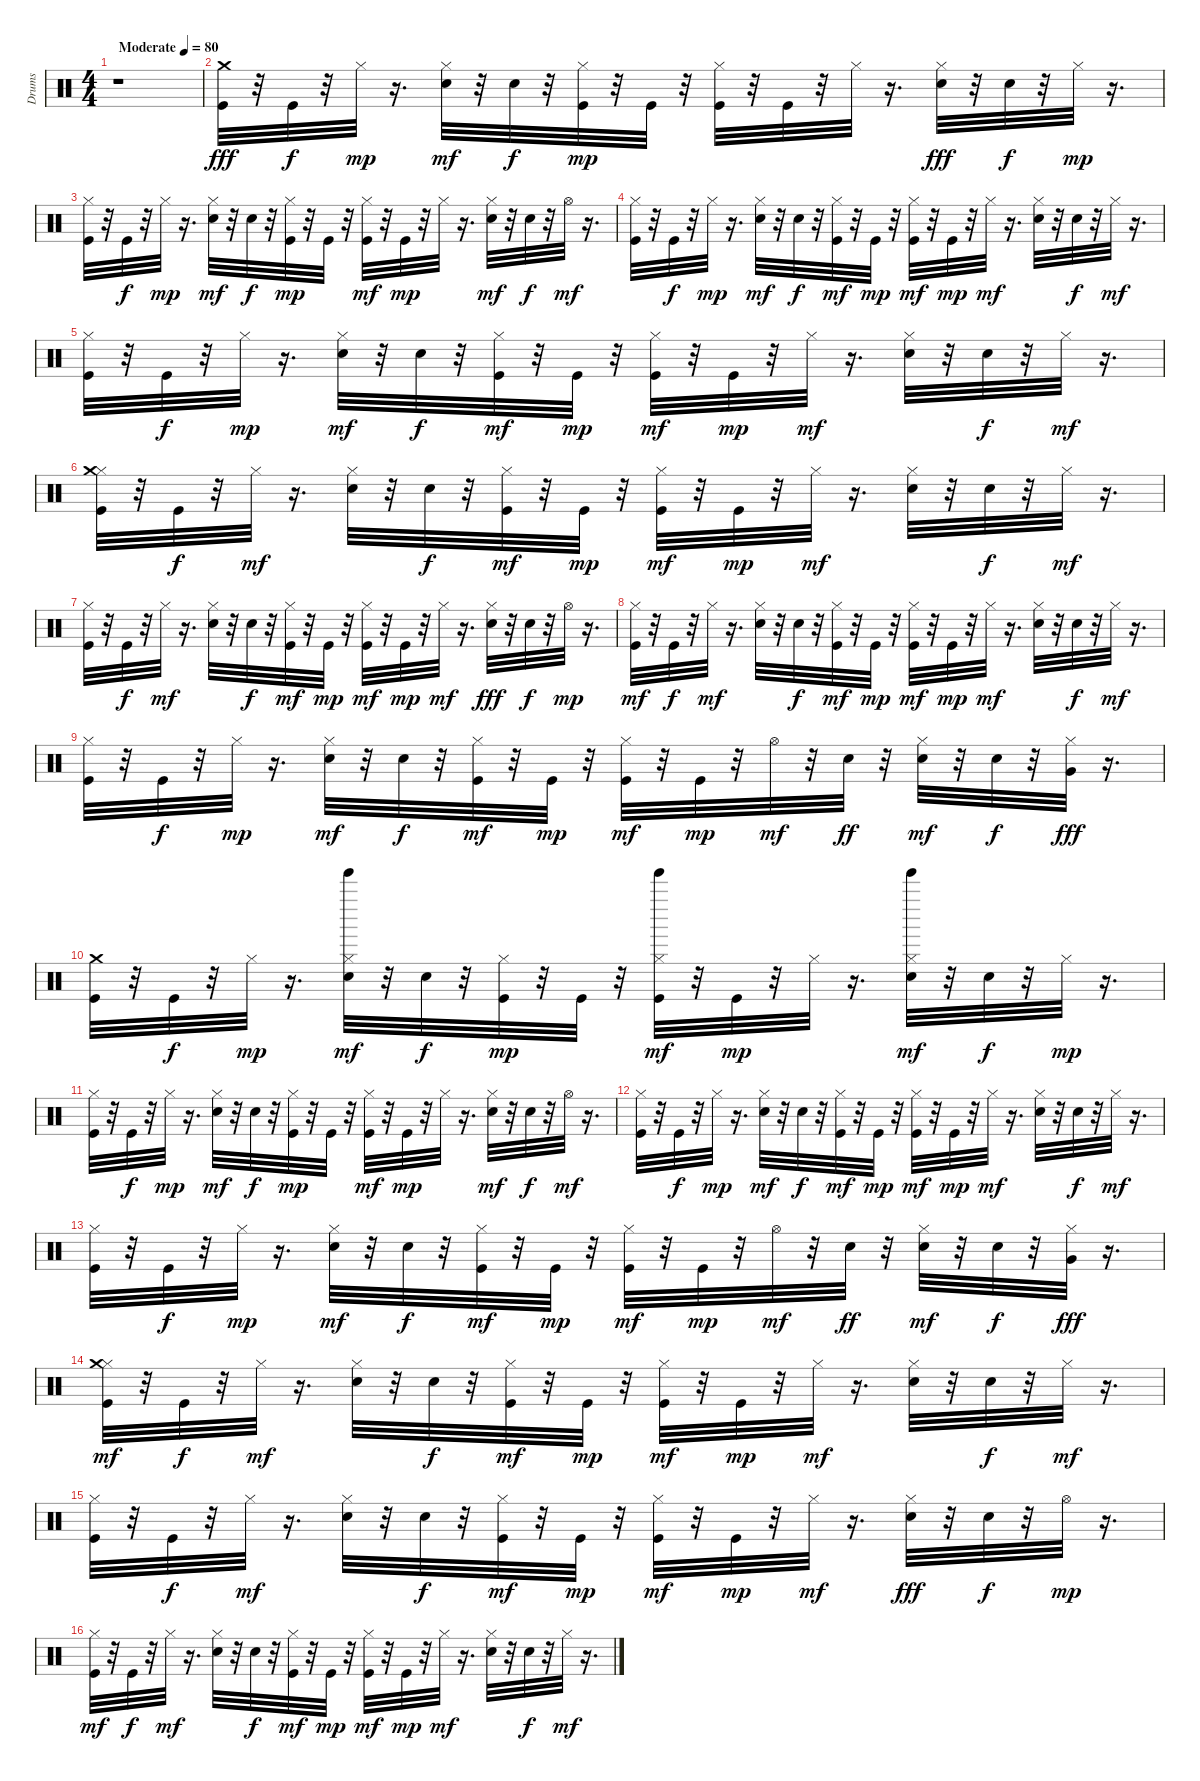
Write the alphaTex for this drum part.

\track ("Drums" "Drums") {instrument percussion}
\staff {score}
\articulation defaults
\ts (4 4)
\tempo (80 "Moderate")
\clef neutral
\ks c
r.1{dy fff} |
("Kick (hit)" "Crash medium (hit)").32 r.32 "Kick (hit)".32{dy f} r.32 "Hi-Hat (closed)".32{dy mp} r.16{d} ("Snare (hit) 2" "Hi-Hat (closed)").32{dy mf} r.32 "Snare (hit) 2".32{dy f} r.32 ("Kick (hit)" "Hi-Hat (closed)").32{dy mp} r.32 "Kick (hit)".32 r.32 ("Kick (hit)" "Hi-Hat (closed)").32 r.32 "Kick (hit)".32 r.32 "Hi-Hat (closed)".32 r.16{d} ("Snare (hit) 2" "Hi-Hat (closed)").32{dy fff} r.32 "Snare (hit) 2".32{dy f} r.32 "Hi-Hat (closed)".32{dy mp} r.16{d} |
("Kick (hit)" "Hi-Hat (closed)").32 r.32 "Kick (hit)".32{dy f} r.32 "Hi-Hat (closed)".32{dy mp} r.16{d} ("Snare (hit) 2" "Hi-Hat (closed)").32{dy mf} r.32 "Snare (hit) 2".32{dy f} r.32 ("Kick (hit)" "Hi-Hat (closed)").32{dy mp} r.32 "Kick (hit)".32 r.32 ("Kick (hit)" "Hi-Hat (closed)").32{dy mf} r.32 "Kick (hit)".32{dy mp} r.32 "Hi-Hat (closed)".32 r.16{d} ("Snare (hit) 2" "Hi-Hat (closed)").32{dy mf} r.32 "Snare (hit) 2".32{dy f} r.32 "Hi-Hat (open)".32{dy mf} r.16{d} |
("Kick (hit)" "Hi-Hat (closed)").32 r.32 "Kick (hit)".32{dy f} r.32 "Hi-Hat (closed)".32{dy mp} r.16{d} ("Snare (hit) 2" "Hi-Hat (closed)").32{dy mf} r.32 "Snare (hit) 2".32{dy f} r.32 ("Kick (hit)" "Hi-Hat (closed)").32{dy mf} r.32 "Kick (hit)".32{dy mp} r.32 ("Kick (hit)" "Hi-Hat (closed)").32{dy mf} r.32 "Kick (hit)".32{dy mp} r.32 "Hi-Hat (closed)".32{dy mf} r.16{d} ("Snare (hit) 2" "Hi-Hat (closed)").32 r.32 "Snare (hit) 2".32{dy f} r.32 "Hi-Hat (closed)".32{dy mf} r.16{d} |
("Kick (hit)" "Hi-Hat (closed)").32 r.32 "Kick (hit)".32{dy f} r.32 "Hi-Hat (closed)".32{dy mp} r.16{d} ("Snare (hit) 2" "Hi-Hat (closed)").32{dy mf} r.32 "Snare (hit) 2".32{dy f} r.32 ("Kick (hit)" "Hi-Hat (closed)").32{dy mf} r.32 "Kick (hit)".32{dy mp} r.32 ("Kick (hit)" "Hi-Hat (closed)").32{dy mf} r.32 "Kick (hit)".32{dy mp} r.32 "Hi-Hat (closed)".32{dy mf} r.16{d} ("Snare (hit) 2" "Hi-Hat (closed)").32 r.32 "Snare (hit) 2".32{dy f} r.32 "Hi-Hat (closed)".32{dy mf} r.16{d} |
("Kick (hit)" "Hi-Hat (closed)" "Crash medium (hit)").32 r.32 "Kick (hit)".32{dy f} r.32 "Hi-Hat (closed)".32{dy mf} r.16{d} ("Snare (hit) 2" "Hi-Hat (closed)").32 r.32 "Snare (hit) 2".32{dy f} r.32 ("Kick (hit)" "Hi-Hat (closed)").32{dy mf} r.32 "Kick (hit)".32{dy mp} r.32 ("Kick (hit)" "Hi-Hat (closed)").32{dy mf} r.32 "Kick (hit)".32{dy mp} r.32 "Hi-Hat (closed)".32{dy mf} r.16{d} ("Snare (hit) 2" "Hi-Hat (closed)").32 r.32 "Snare (hit) 2".32{dy f} r.32 "Hi-Hat (closed)".32{dy mf} r.16{d} |
("Kick (hit)" "Hi-Hat (closed)").32 r.32 "Kick (hit)".32{dy f} r.32 "Hi-Hat (closed)".32{dy mf} r.16{d} ("Snare (hit) 2" "Hi-Hat (closed)").32 r.32 "Snare (hit) 2".32{dy f} r.32 ("Kick (hit)" "Hi-Hat (closed)").32{dy mf} r.32 "Kick (hit)".32{dy mp} r.32 ("Kick (hit)" "Hi-Hat (closed)").32{dy mf} r.32 "Kick (hit)".32{dy mp} r.32 "Hi-Hat (closed)".32{dy mf} r.16{d} ("Snare (hit) 2" "Hi-Hat (closed)").32{dy fff} r.32 "Snare (hit) 2".32{dy f} r.32 "Hi-Hat (open)".32{dy mp} r.16{d} |
("Kick (hit)" "Hi-Hat (closed)").32{dy mf} r.32 "Kick (hit)".32{dy f} r.32 "Hi-Hat (closed)".32{dy mf} r.16{d} ("Snare (hit) 2" "Hi-Hat (closed)").32 r.32 "Snare (hit) 2".32{dy f} r.32 ("Kick (hit)" "Hi-Hat (closed)").32{dy mf} r.32 "Kick (hit)".32{dy mp} r.32 ("Kick (hit)" "Hi-Hat (closed)").32{dy mf} r.32 "Kick (hit)".32{dy mp} r.32 "Hi-Hat (closed)".32{dy mf} r.16{d} ("Snare (hit) 2" "Hi-Hat (closed)").32 r.32 "Snare (hit) 2".32{dy f} r.32 "Hi-Hat (closed)".32{dy mf} r.16{d} |
("Kick (hit)" "Hi-Hat (closed)").32 r.32 "Kick (hit)".32{dy f} r.32 "Hi-Hat (closed)".32{dy mp} r.16{d} ("Snare (hit) 2" "Hi-Hat (closed)").32{dy mf} r.32 "Snare (hit) 2".32{dy f} r.32 ("Kick (hit)" "Hi-Hat (closed)").32{dy mf} r.32 "Kick (hit)".32{dy mp} r.32 ("Kick (hit)" "Hi-Hat (closed)").32{dy mf} r.32 "Kick (hit)".32{dy mp} r.32 "Hi-Hat (open)".32{dy mf} r.32 "Snare (hit) 2".32{dy ff} r.32 ("Snare (hit) 2" "Hi-Hat (closed)").32{dy mf} r.32 "Snare (hit) 2".32{dy f} r.32 ("Hi-Hat (closed)" "Very Low Tom (hit)").32{dy fff} r.16{d} |
("Kick (hit)" "Crash medium (hit)").32 r.32 "Kick (hit)".32{dy f} r.32 "Hi-Hat (closed)".32{dy mp} r.16{d} ("Snare (hit) 2" "Hi-Hat (closed)" "Tinkle Bell (hit)").32{dy mf} r.32 "Snare (hit) 2".32{dy f} r.32 ("Kick (hit)" "Hi-Hat (closed)").32{dy mp} r.32 "Kick (hit)".32 r.32 ("Kick (hit)" "Hi-Hat (closed)" "Tinkle Bell (hit)").32{dy mf} r.32 "Kick (hit)".32{dy mp} r.32 "Hi-Hat (closed)".32 r.16{d} ("Snare (hit) 2" "Hi-Hat (closed)" "Tinkle Bell (hit)").32{dy mf} r.32 "Snare (hit) 2".32{dy f} r.32 "Hi-Hat (closed)".32{dy mp} r.16{d} |
("Kick (hit)" "Hi-Hat (closed)").32 r.32 "Kick (hit)".32{dy f} r.32 "Hi-Hat (closed)".32{dy mp} r.16{d} ("Snare (hit) 2" "Hi-Hat (closed)").32{dy mf} r.32 "Snare (hit) 2".32{dy f} r.32 ("Kick (hit)" "Hi-Hat (closed)").32{dy mp} r.32 "Kick (hit)".32 r.32 ("Kick (hit)" "Hi-Hat (closed)").32{dy mf} r.32 "Kick (hit)".32{dy mp} r.32 "Hi-Hat (closed)".32 r.16{d} ("Snare (hit) 2" "Hi-Hat (closed)").32{dy mf} r.32 "Snare (hit) 2".32{dy f} r.32 "Hi-Hat (open)".32{dy mf} r.16{d} |
("Kick (hit)" "Hi-Hat (closed)").32 r.32 "Kick (hit)".32{dy f} r.32 "Hi-Hat (closed)".32{dy mp} r.16{d} ("Snare (hit) 2" "Hi-Hat (closed)").32{dy mf} r.32 "Snare (hit) 2".32{dy f} r.32 ("Kick (hit)" "Hi-Hat (closed)").32{dy mf} r.32 "Kick (hit)".32{dy mp} r.32 ("Kick (hit)" "Hi-Hat (closed)").32{dy mf} r.32 "Kick (hit)".32{dy mp} r.32 "Hi-Hat (closed)".32{dy mf} r.16{d} ("Snare (hit) 2" "Hi-Hat (closed)").32 r.32 "Snare (hit) 2".32{dy f} r.32 "Hi-Hat (closed)".32{dy mf} r.16{d} |
("Kick (hit)" "Hi-Hat (closed)").32 r.32 "Kick (hit)".32{dy f} r.32 "Hi-Hat (closed)".32{dy mp} r.16{d} ("Snare (hit) 2" "Hi-Hat (closed)").32{dy mf} r.32 "Snare (hit) 2".32{dy f} r.32 ("Kick (hit)" "Hi-Hat (closed)").32{dy mf} r.32 "Kick (hit)".32{dy mp} r.32 ("Kick (hit)" "Hi-Hat (closed)").32{dy mf} r.32 "Kick (hit)".32{dy mp} r.32 "Hi-Hat (open)".32{dy mf} r.32 "Snare (hit) 2".32{dy ff} r.32 ("Snare (hit) 2" "Hi-Hat (closed)").32{dy mf} r.32 "Snare (hit) 2".32{dy f} r.32 ("Hi-Hat (closed)" "Very Low Tom (hit)").32{dy fff} r.16{d} |
("Kick (hit)" "Hi-Hat (closed)" "Crash medium (hit)").32{dy mf} r.32 "Kick (hit)".32{dy f} r.32 "Hi-Hat (closed)".32{dy mf} r.16{d} ("Snare (hit) 2" "Hi-Hat (closed)").32 r.32 "Snare (hit) 2".32{dy f} r.32 ("Kick (hit)" "Hi-Hat (closed)").32{dy mf} r.32 "Kick (hit)".32{dy mp} r.32 ("Kick (hit)" "Hi-Hat (closed)").32{dy mf} r.32 "Kick (hit)".32{dy mp} r.32 "Hi-Hat (closed)".32{dy mf} r.16{d} ("Snare (hit) 2" "Hi-Hat (closed)").32 r.32 "Snare (hit) 2".32{dy f} r.32 "Hi-Hat (closed)".32{dy mf} r.16{d} |
("Kick (hit)" "Hi-Hat (closed)").32 r.32 "Kick (hit)".32{dy f} r.32 "Hi-Hat (closed)".32{dy mf} r.16{d} ("Snare (hit) 2" "Hi-Hat (closed)").32 r.32 "Snare (hit) 2".32{dy f} r.32 ("Kick (hit)" "Hi-Hat (closed)").32{dy mf} r.32 "Kick (hit)".32{dy mp} r.32 ("Kick (hit)" "Hi-Hat (closed)").32{dy mf} r.32 "Kick (hit)".32{dy mp} r.32 "Hi-Hat (closed)".32{dy mf} r.16{d} ("Snare (hit) 2" "Hi-Hat (closed)").32{dy fff} r.32 "Snare (hit) 2".32{dy f} r.32 "Hi-Hat (open)".32{dy mp} r.16{d} |
("Kick (hit)" "Hi-Hat (closed)").32{dy mf} r.32 "Kick (hit)".32{dy f} r.32 "Hi-Hat (closed)".32{dy mf} r.16{d} ("Snare (hit) 2" "Hi-Hat (closed)").32 r.32 "Snare (hit) 2".32{dy f} r.32 ("Kick (hit)" "Hi-Hat (closed)").32{dy mf} r.32 "Kick (hit)".32{dy mp} r.32 ("Kick (hit)" "Hi-Hat (closed)").32{dy mf} r.32 "Kick (hit)".32{dy mp} r.32 "Hi-Hat (closed)".32{dy mf} r.16{d} ("Snare (hit) 2" "Hi-Hat (closed)").32 r.32 "Snare (hit) 2".32{dy f} r.32 "Hi-Hat (closed)".32{dy mf} r.16{d}
